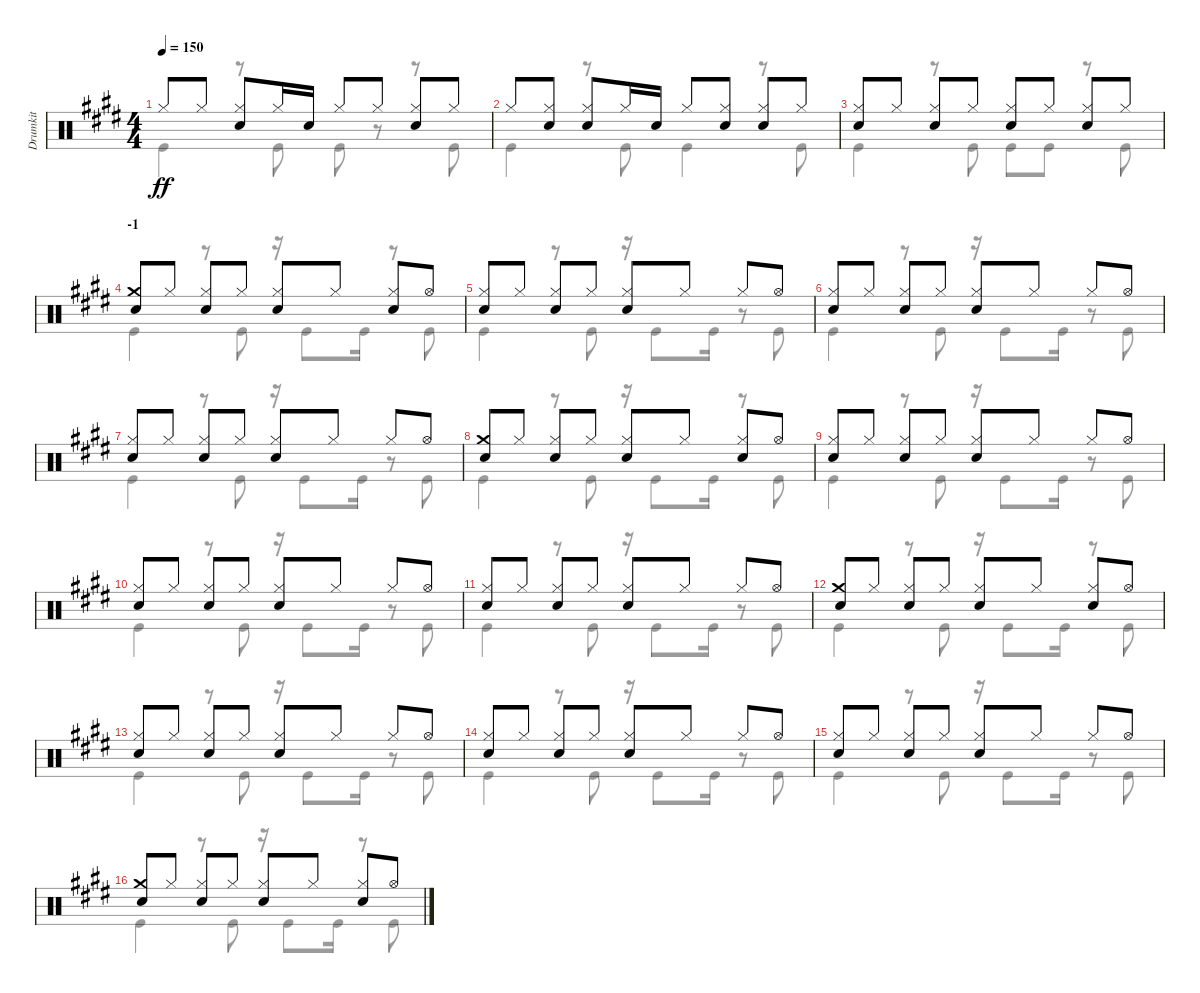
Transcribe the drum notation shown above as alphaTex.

\track ("Drumkit" "Drumkit") {instrument percussion}
\staff {score}
\articulation defaults
\voice
\ts (4 4)
\tempo 150
\clef neutral
\ks e "Hi-Hat (closed)".8{dy ff} "Hi-Hat (closed)".8
("Hi-Hat (closed)" "Snare (hit) 2").8 "Hi-Hat (closed)".16 "Snare (hit) 2".16 "Hi-Hat (closed)".8 "Hi-Hat (closed)".8 ("Hi-Hat (closed)" "Snare (hit) 2").8 "Hi-Hat (closed)".8 |
"Hi-Hat (closed)".8 ("Hi-Hat (closed)" "Snare (hit) 2").8 ("Snare (hit) 2" "Hi-Hat (closed)").8 "Hi-Hat (closed)".16 "Snare (hit) 2".16 "Hi-Hat (closed)".8 ("Hi-Hat (closed)" "Snare (hit) 2").8 ("Snare (hit) 2" "Hi-Hat (closed)").8 "Hi-Hat (closed)".8 |
("Hi-Hat (closed)" "Snare (hit) 2").8 "Hi-Hat (closed)".8 ("Hi-Hat (closed)" "Snare (hit) 2").8 "Hi-Hat (closed)".8 ("Hi-Hat (closed)" "Snare (hit) 2").8 "Hi-Hat (closed)".8 ("Hi-Hat (closed)" "Snare (hit) 2").8 "Hi-Hat (closed)".8 |
\section ("" "-1")
("Crash medium (hit)" "Snare (hit) 2").8 "Hi-Hat (closed)".8 ("Hi-Hat (closed)" "Snare (hit) 2").8 "Hi-Hat (closed)".8 ("Hi-Hat (closed)" "Snare (hit) 2").8 "Hi-Hat (closed)".8 ("Hi-Hat (closed)" "Snare (hit) 2").8 "Hi-Hat (open)".8 |
("Snare (hit) 2" "Hi-Hat (closed)").8 "Hi-Hat (closed)".8 ("Hi-Hat (closed)" "Snare (hit) 2").8 "Hi-Hat (closed)".8 ("Hi-Hat (closed)" "Snare (hit) 2").8 "Hi-Hat (closed)".8 "Hi-Hat (closed)".8 "Hi-Hat (open)".8 |
("Snare (hit) 2" "Hi-Hat (closed)").8 "Hi-Hat (closed)".8 ("Hi-Hat (closed)" "Snare (hit) 2").8 "Hi-Hat (closed)".8 ("Hi-Hat (closed)" "Snare (hit) 2").8 "Hi-Hat (closed)".8 "Hi-Hat (closed)".8 "Hi-Hat (open)".8 |
("Snare (hit) 2" "Hi-Hat (closed)").8 "Hi-Hat (closed)".8 ("Hi-Hat (closed)" "Snare (hit) 2").8 "Hi-Hat (closed)".8 ("Hi-Hat (closed)" "Snare (hit) 2").8 "Hi-Hat (closed)".8 "Hi-Hat (closed)".8 "Hi-Hat (open)".8 |
("Crash medium (hit)" "Snare (hit) 2").8 "Hi-Hat (closed)".8 ("Hi-Hat (closed)" "Snare (hit) 2").8 "Hi-Hat (closed)".8 ("Hi-Hat (closed)" "Snare (hit) 2").8 "Hi-Hat (closed)".8 ("Hi-Hat (closed)" "Snare (hit) 2").8 "Hi-Hat (open)".8 |
("Snare (hit) 2" "Hi-Hat (closed)").8 "Hi-Hat (closed)".8 ("Hi-Hat (closed)" "Snare (hit) 2").8 "Hi-Hat (closed)".8 ("Hi-Hat (closed)" "Snare (hit) 2").8 "Hi-Hat (closed)".8 "Hi-Hat (closed)".8 "Hi-Hat (open)".8 |
("Snare (hit) 2" "Hi-Hat (closed)").8 "Hi-Hat (closed)".8 ("Hi-Hat (closed)" "Snare (hit) 2").8 "Hi-Hat (closed)".8 ("Hi-Hat (closed)" "Snare (hit) 2").8 "Hi-Hat (closed)".8 "Hi-Hat (closed)".8 "Hi-Hat (open)".8 |
("Snare (hit) 2" "Hi-Hat (closed)").8 "Hi-Hat (closed)".8 ("Hi-Hat (closed)" "Snare (hit) 2").8 "Hi-Hat (closed)".8 ("Hi-Hat (closed)" "Snare (hit) 2").8 "Hi-Hat (closed)".8 "Hi-Hat (closed)".8 "Hi-Hat (open)".8 |
("Crash medium (hit)" "Snare (hit) 2").8 "Hi-Hat (closed)".8 ("Hi-Hat (closed)" "Snare (hit) 2").8 "Hi-Hat (closed)".8 ("Hi-Hat (closed)" "Snare (hit) 2").8 "Hi-Hat (closed)".8 ("Hi-Hat (closed)" "Snare (hit) 2").8 "Hi-Hat (open)".8 |
("Snare (hit) 2" "Hi-Hat (closed)").8 "Hi-Hat (closed)".8 ("Hi-Hat (closed)" "Snare (hit) 2").8 "Hi-Hat (closed)".8 ("Hi-Hat (closed)" "Snare (hit) 2").8 "Hi-Hat (closed)".8 "Hi-Hat (closed)".8 "Hi-Hat (open)".8 |
("Snare (hit) 2" "Hi-Hat (closed)").8 "Hi-Hat (closed)".8 ("Hi-Hat (closed)" "Snare (hit) 2").8 "Hi-Hat (closed)".8 ("Hi-Hat (closed)" "Snare (hit) 2").8 "Hi-Hat (closed)".8 "Hi-Hat (closed)".8 "Hi-Hat (open)".8 |
("Snare (hit) 2" "Hi-Hat (closed)").8 "Hi-Hat (closed)".8 ("Hi-Hat (closed)" "Snare (hit) 2").8 "Hi-Hat (closed)".8 ("Hi-Hat (closed)" "Snare (hit) 2").8 "Hi-Hat (closed)".8 "Hi-Hat (closed)".8 "Hi-Hat (open)".8 |
("Crash medium (hit)" "Snare (hit) 2").8 "Hi-Hat (closed)".8 ("Hi-Hat (closed)" "Snare (hit) 2").8 "Hi-Hat (closed)".8 ("Hi-Hat (closed)" "Snare (hit) 2").8 "Hi-Hat (closed)".8 ("Hi-Hat (closed)" "Snare (hit) 2").8 "Hi-Hat (open)".8
\voice
\clef neutral
\ottava regular
\simile none
\ks e "Kick (hit)".4{dy ff}
r.8 "Kick (hit)".8 "Kick (hit)".8 r.8 r.8 "Kick (hit)".8 |
"Kick (hit)".4 r.8 "Kick (hit)".8 "Kick (hit)".4 r.8 "Kick (hit)".8 |
"Kick (hit)".4 r.8 "Kick (hit)".8 "Kick (hit)".8 "Kick (hit)".8 r.8 "Kick (hit)".8 |
"Kick (hit)".4 r.8 "Kick (hit)".8 r.16 "Kick (hit)".8 "Kick (hit)".16 r.8 "Kick (hit)".8 |
"Kick (hit)".4 r.8 "Kick (hit)".8 r.16 "Kick (hit)".8 "Kick (hit)".16 r.8 "Kick (hit)".8 |
"Kick (hit)".4 r.8 "Kick (hit)".8 r.16 "Kick (hit)".8 "Kick (hit)".16 r.8 "Kick (hit)".8 |
"Kick (hit)".4 r.8 "Kick (hit)".8 r.16 "Kick (hit)".8 "Kick (hit)".16 r.8 "Kick (hit)".8 |
"Kick (hit)".4 r.8 "Kick (hit)".8 r.16 "Kick (hit)".8 "Kick (hit)".16 r.8 "Kick (hit)".8 |
"Kick (hit)".4 r.8 "Kick (hit)".8 r.16 "Kick (hit)".8 "Kick (hit)".16 r.8 "Kick (hit)".8 |
"Kick (hit)".4 r.8 "Kick (hit)".8 r.16 "Kick (hit)".8 "Kick (hit)".16 r.8 "Kick (hit)".8 |
"Kick (hit)".4 r.8 "Kick (hit)".8 r.16 "Kick (hit)".8 "Kick (hit)".16 r.8 "Kick (hit)".8 |
"Kick (hit)".4 r.8 "Kick (hit)".8 r.16 "Kick (hit)".8 "Kick (hit)".16 r.8 "Kick (hit)".8 |
"Kick (hit)".4 r.8 "Kick (hit)".8 r.16 "Kick (hit)".8 "Kick (hit)".16 r.8 "Kick (hit)".8 |
"Kick (hit)".4 r.8 "Kick (hit)".8 r.16 "Kick (hit)".8 "Kick (hit)".16 r.8 "Kick (hit)".8 |
"Kick (hit)".4 r.8 "Kick (hit)".8 r.16 "Kick (hit)".8 "Kick (hit)".16 r.8 "Kick (hit)".8 |
"Kick (hit)".4 r.8 "Kick (hit)".8 r.16 "Kick (hit)".8 "Kick (hit)".16 r.8 "Kick (hit)".8
